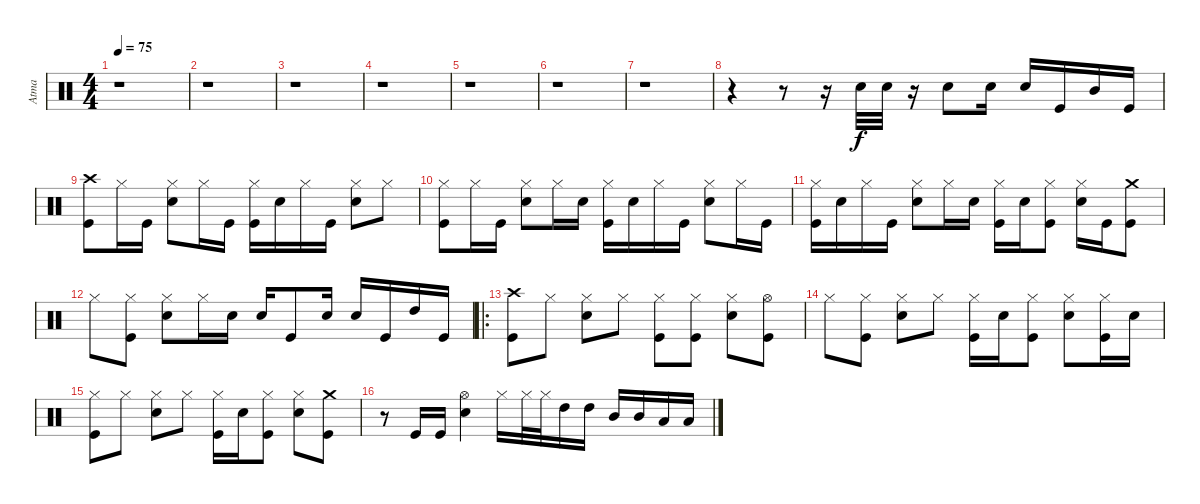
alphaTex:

\track ("Atma" "Atma") {instrument percussion}
\staff {score}
\articulation defaults
\ts (4 4)
\tempo 75
\clef neutral
\ks c
r.1{dy f} |
r.1 |
r.1 |
r.1 |
r.1 |
r.1 |
r.1 |
r.4 r.8 r.16 "Snare (hit) 2".32 "Snare (hit) 2".32 r.16 "Snare (hit) 2".8 "Snare (hit) 2".16 "Snare (hit) 2".16 "Kick (hit)".16 "Mid Tom (hit)".16 "Kick (hit)".16 |
("Kick (hit)" "Crash high (hit)").8 "Hi-Hat (closed)".16 "Kick (hit)".16 ("Snare (hit) 2" "Hi-Hat (closed)").8 "Hi-Hat (closed)".16 "Kick (hit)".16 ("Kick (hit)" "Hi-Hat (closed)").16 "Snare (hit) 2".16 "Hi-Hat (closed)".16 "Kick (hit)".16 ("Snare (hit) 2" "Hi-Hat (closed)").8 "Hi-Hat (closed)".8 |
("Kick (hit)" "Hi-Hat (closed)").8 "Hi-Hat (closed)".16 "Kick (hit)".16 ("Snare (hit) 2" "Hi-Hat (closed)").8 "Hi-Hat (closed)".16 "Snare (hit) 2".16 ("Kick (hit)" "Hi-Hat (closed)").16 "Snare (hit) 2".16 "Hi-Hat (closed)".16 "Kick (hit)".16 ("Snare (hit) 2" "Hi-Hat (closed)").8 "Hi-Hat (closed)".16 "Kick (hit)".16 |
("Kick (hit)" "Hi-Hat (closed)").16 "Snare (hit) 2".16 "Hi-Hat (closed)".16 "Kick (hit)".16 ("Snare (hit) 2" "Hi-Hat (closed)").8 "Hi-Hat (closed)".16 "Snare (hit) 2".16 ("Kick (hit)" "Hi-Hat (closed)").16 "Snare (hit) 2".16 ("Kick (hit)" "Hi-Hat (closed)").8 ("Snare (hit) 2" "Hi-Hat (closed)").16 "Kick (hit)".16 ("Kick (hit)" "Crash medium (hit)").8 |
"Hi-Hat (closed)".8 ("Kick (hit)" "Hi-Hat (closed)").8 ("Snare (hit) 2" "Hi-Hat (closed)").8 "Hi-Hat (closed)".16 "Snare (hit) 2".16 "Snare (hit) 2".16 "Kick (hit)".8 "Snare (hit) 2".16 "Snare (hit) 2".16 "Kick (hit)".16 "High Tom (hit)".16 "Kick (hit)".16 |
\ro
("Kick (hit)" "Crash high (hit)").8 "Hi-Hat (closed)".8 ("Snare (hit) 2" "Hi-Hat (closed)").8 "Hi-Hat (closed)".8 ("Kick (hit)" "Hi-Hat (closed)").8 ("Kick (hit)" "Hi-Hat (closed)").8 ("Snare (hit) 2" "Hi-Hat (closed)").8 ("Kick (hit)" "Hi-Hat (open)").8 |
"Hi-Hat (closed)".8 ("Kick (hit)" "Hi-Hat (closed)").8 ("Snare (hit) 2" "Hi-Hat (closed)").8 "Hi-Hat (closed)".8 ("Kick (hit)" "Hi-Hat (closed)").16 "Snare (hit) 2".16 ("Kick (hit)" "Hi-Hat (closed)").8 ("Snare (hit) 2" "Hi-Hat (closed)").8 ("Kick (hit)" "Hi-Hat (closed)").16 "Snare (hit) 2".16 |
("Kick (hit)" "Hi-Hat (closed)").8 "Hi-Hat (closed)".8 ("Snare (hit) 2" "Hi-Hat (closed)").8 "Hi-Hat (closed)".8 ("Kick (hit)" "Hi-Hat (closed)").16 "Snare (hit) 2".16 ("Kick (hit)" "Hi-Hat (closed)").8 ("Snare (hit) 2" "Hi-Hat (closed)").8 ("Kick (hit)" "Crash medium (hit)").8 |
r.8 "Kick (hit)".16 "Kick (hit)".16 ("Snare (hit) 2" "Hi-Hat (open)").4 "Hi-Hat (closed)".16 "Hi-Hat (closed)".32 "Hi-Hat (closed)".32 "High Tom (hit)".16 "High Tom (hit)".16 "Mid Tom (hit)".16 "Mid Tom (hit)".16 "Low Tom (hit)".16 "Low Tom (hit)".16
